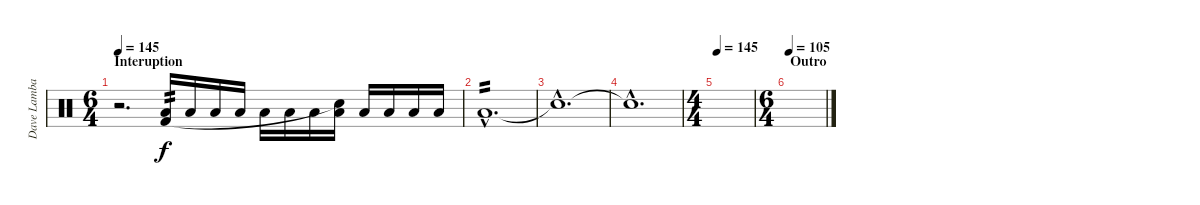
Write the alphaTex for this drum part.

\track ("Dave Lambardo" "Dave Lamba") {instrument percussion}
\staff {score}
\articulation defaults
\ts (6 4)
\section ("" "Interuption")
\tempo 145
\clef neutral
\ks c
r.2{d dy f volume 16} ("Low Floor Tom (hit)" "Kick (hit) 2").16{tp 2} "Low Floor Tom (hit)".16 "Low Floor Tom (hit)".16 "Low Floor Tom (hit)".16 "Low Floor Tom (hit)".16 "Low Floor Tom (hit)".16 "Low Floor Tom (hit)".16 ("Low Floor Tom (hit)" "Snare (hit)"{t}).16 "Low Floor Tom (hit)".16 "Low Floor Tom (hit)".16 "Low Floor Tom (hit)".16 "Low Floor Tom (hit)".16 |
"Low Floor Tom (hit)"{hac}.1{d tp 2} |
"Snare (hit)"{hac t}.1{d} |
"Snare (hit)"{hac t}.1{d} |
\ts (4 4)
\tempo 145
|
\ts (6 4)
\section ("" "Outro")
\tempo 105
